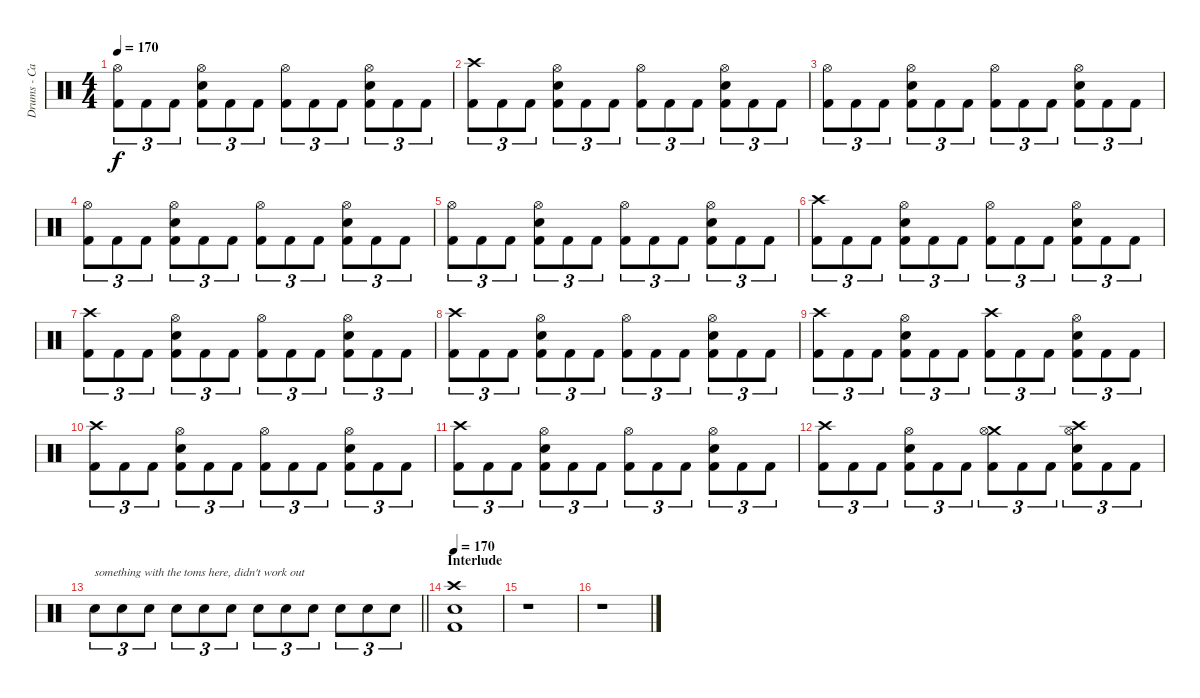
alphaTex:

\track ("Drums - Casey Grillo" "Drums - Ca") {instrument percussion}
\staff {score}
\articulation defaults
\ts (4 4)
\tempo 170
\clef neutral
\ks c
("Hi-Hat (open)" "Kick (hit) 2").8{tu (3 2) dy f} "Kick (hit) 2".8{tu (3 2)} "Kick (hit) 2".8{tu (3 2)} ("Hi-Hat (open)" "Snare (hit) 2" "Kick (hit) 2").8{tu (3 2)} "Kick (hit) 2".8{tu (3 2)} "Kick (hit) 2".8{tu (3 2)} ("Hi-Hat (open)" "Kick (hit) 2").8{tu (3 2)} "Kick (hit) 2".8{tu (3 2)} "Kick (hit) 2".8{tu (3 2)} ("Hi-Hat (open)" "Snare (hit) 2" "Kick (hit) 2").8{tu (3 2)} "Kick (hit) 2".8{tu (3 2)} "Kick (hit) 2".8{tu (3 2)} |
("Crash high (hit)" "Kick (hit) 2").8{tu (3 2)} "Kick (hit) 2".8{tu (3 2)} "Kick (hit) 2".8{tu (3 2)} ("Hi-Hat (open)" "Snare (hit) 2" "Kick (hit) 2").8{tu (3 2)} "Kick (hit) 2".8{tu (3 2)} "Kick (hit) 2".8{tu (3 2)} ("Hi-Hat (open)" "Kick (hit) 2").8{tu (3 2)} "Kick (hit) 2".8{tu (3 2)} "Kick (hit) 2".8{tu (3 2)} ("Hi-Hat (open)" "Snare (hit) 2" "Kick (hit) 2").8{tu (3 2)} "Kick (hit) 2".8{tu (3 2)} "Kick (hit) 2".8{tu (3 2)} |
("Hi-Hat (open)" "Kick (hit) 2").8{tu (3 2)} "Kick (hit) 2".8{tu (3 2)} "Kick (hit) 2".8{tu (3 2)} ("Hi-Hat (open)" "Snare (hit) 2" "Kick (hit) 2").8{tu (3 2)} "Kick (hit) 2".8{tu (3 2)} "Kick (hit) 2".8{tu (3 2)} ("Hi-Hat (open)" "Kick (hit) 2").8{tu (3 2)} "Kick (hit) 2".8{tu (3 2)} "Kick (hit) 2".8{tu (3 2)} ("Hi-Hat (open)" "Snare (hit) 2" "Kick (hit) 2").8{tu (3 2)} "Kick (hit) 2".8{tu (3 2)} "Kick (hit) 2".8{tu (3 2)} |
("Hi-Hat (open)" "Kick (hit) 2").8{tu (3 2)} "Kick (hit) 2".8{tu (3 2)} "Kick (hit) 2".8{tu (3 2)} ("Hi-Hat (open)" "Snare (hit) 2" "Kick (hit) 2").8{tu (3 2)} "Kick (hit) 2".8{tu (3 2)} "Kick (hit) 2".8{tu (3 2)} ("Hi-Hat (open)" "Kick (hit) 2").8{tu (3 2)} "Kick (hit) 2".8{tu (3 2)} "Kick (hit) 2".8{tu (3 2)} ("Hi-Hat (open)" "Snare (hit) 2" "Kick (hit) 2").8{tu (3 2)} "Kick (hit) 2".8{tu (3 2)} "Kick (hit) 2".8{tu (3 2)} |
("Hi-Hat (open)" "Kick (hit) 2").8{tu (3 2)} "Kick (hit) 2".8{tu (3 2)} "Kick (hit) 2".8{tu (3 2)} ("Hi-Hat (open)" "Snare (hit) 2" "Kick (hit) 2").8{tu (3 2)} "Kick (hit) 2".8{tu (3 2)} "Kick (hit) 2".8{tu (3 2)} ("Hi-Hat (open)" "Kick (hit) 2").8{tu (3 2)} "Kick (hit) 2".8{tu (3 2)} "Kick (hit) 2".8{tu (3 2)} ("Hi-Hat (open)" "Snare (hit) 2" "Kick (hit) 2").8{tu (3 2)} "Kick (hit) 2".8{tu (3 2)} "Kick (hit) 2".8{tu (3 2)} |
("Crash high (hit)" "Kick (hit) 2").8{tu (3 2)} "Kick (hit) 2".8{tu (3 2)} "Kick (hit) 2".8{tu (3 2)} ("Hi-Hat (open)" "Snare (hit) 2" "Kick (hit) 2").8{tu (3 2)} "Kick (hit) 2".8{tu (3 2)} "Kick (hit) 2".8{tu (3 2)} ("Hi-Hat (open)" "Kick (hit) 2").8{tu (3 2)} "Kick (hit) 2".8{tu (3 2)} "Kick (hit) 2".8{tu (3 2)} ("Hi-Hat (open)" "Snare (hit) 2" "Kick (hit) 2").8{tu (3 2)} "Kick (hit) 2".8{tu (3 2)} "Kick (hit) 2".8{tu (3 2)} |
("Crash high (hit)" "Kick (hit) 2").8{tu (3 2)} "Kick (hit) 2".8{tu (3 2)} "Kick (hit) 2".8{tu (3 2)} ("Hi-Hat (open)" "Snare (hit) 2" "Kick (hit) 2").8{tu (3 2)} "Kick (hit) 2".8{tu (3 2)} "Kick (hit) 2".8{tu (3 2)} ("Hi-Hat (open)" "Kick (hit) 2").8{tu (3 2)} "Kick (hit) 2".8{tu (3 2)} "Kick (hit) 2".8{tu (3 2)} ("Hi-Hat (open)" "Snare (hit) 2" "Kick (hit) 2").8{tu (3 2)} "Kick (hit) 2".8{tu (3 2)} "Kick (hit) 2".8{tu (3 2)} |
("Crash high (hit)" "Kick (hit) 2").8{tu (3 2)} "Kick (hit) 2".8{tu (3 2)} "Kick (hit) 2".8{tu (3 2)} ("Hi-Hat (open)" "Snare (hit) 2" "Kick (hit) 2").8{tu (3 2)} "Kick (hit) 2".8{tu (3 2)} "Kick (hit) 2".8{tu (3 2)} ("Hi-Hat (open)" "Kick (hit) 2").8{tu (3 2)} "Kick (hit) 2".8{tu (3 2)} "Kick (hit) 2".8{tu (3 2)} ("Hi-Hat (open)" "Snare (hit) 2" "Kick (hit) 2").8{tu (3 2)} "Kick (hit) 2".8{tu (3 2)} "Kick (hit) 2".8{tu (3 2)} |
("Crash high (hit)" "Kick (hit) 2").8{tu (3 2)} "Kick (hit) 2".8{tu (3 2)} "Kick (hit) 2".8{tu (3 2)} ("Hi-Hat (open)" "Snare (hit) 2" "Kick (hit) 2").8{tu (3 2)} "Kick (hit) 2".8{tu (3 2)} "Kick (hit) 2".8{tu (3 2)} ("Crash high (hit)" "Kick (hit) 2").8{tu (3 2)} "Kick (hit) 2".8{tu (3 2)} "Kick (hit) 2".8{tu (3 2)} ("Hi-Hat (open)" "Snare (hit) 2" "Kick (hit) 2").8{tu (3 2)} "Kick (hit) 2".8{tu (3 2)} "Kick (hit) 2".8{tu (3 2)} |
("Crash high (hit)" "Kick (hit) 2").8{tu (3 2)} "Kick (hit) 2".8{tu (3 2)} "Kick (hit) 2".8{tu (3 2)} ("Hi-Hat (open)" "Snare (hit) 2" "Kick (hit) 2").8{tu (3 2)} "Kick (hit) 2".8{tu (3 2)} "Kick (hit) 2".8{tu (3 2)} ("Hi-Hat (open)" "Kick (hit) 2").8{tu (3 2)} "Kick (hit) 2".8{tu (3 2)} "Kick (hit) 2".8{tu (3 2)} ("Hi-Hat (open)" "Snare (hit) 2" "Kick (hit) 2").8{tu (3 2)} "Kick (hit) 2".8{tu (3 2)} "Kick (hit) 2".8{tu (3 2)} |
("Crash high (hit)" "Kick (hit) 2").8{tu (3 2)} "Kick (hit) 2".8{tu (3 2)} "Kick (hit) 2".8{tu (3 2)} ("Hi-Hat (open)" "Snare (hit) 2" "Kick (hit) 2").8{tu (3 2)} "Kick (hit) 2".8{tu (3 2)} "Kick (hit) 2".8{tu (3 2)} ("Hi-Hat (open)" "Kick (hit) 2").8{tu (3 2)} "Kick (hit) 2".8{tu (3 2)} "Kick (hit) 2".8{tu (3 2)} ("Hi-Hat (open)" "Snare (hit) 2" "Kick (hit) 2").8{tu (3 2)} "Kick (hit) 2".8{tu (3 2)} "Kick (hit) 2".8{tu (3 2)} |
("Crash high (hit)" "Kick (hit) 2").8{tu (3 2)} "Kick (hit) 2".8{tu (3 2)} "Kick (hit) 2".8{tu (3 2)} ("Hi-Hat (open)" "Snare (hit) 2" "Kick (hit) 2").8{tu (3 2)} "Kick (hit) 2".8{tu (3 2)} "Kick (hit) 2".8{tu (3 2)} ("Crash medium (hit)" "Hi-Hat (open)" "Kick (hit) 2").8{tu (3 2)} "Kick (hit) 2".8{tu (3 2)} "Kick (hit) 2".8{tu (3 2)} ("Crash high (hit)" "Hi-Hat (open)" "Snare (hit) 2" "Kick (hit) 2").8{tu (3 2)} "Kick (hit) 2".8{tu (3 2)} "Kick (hit) 2".8{tu (3 2)} |
\barLineRight lightlight "Snare (hit) 2".8{tu (3 2) txt "something with the toms here, didn't work out"} "Snare (hit) 2".8{tu (3 2)} "Snare (hit) 2".8{tu (3 2)} "Snare (hit) 2".8{tu (3 2)} "Snare (hit) 2".8{tu (3 2)} "Snare (hit) 2".8{tu (3 2)} "Snare (hit) 2".8{tu (3 2)} "Snare (hit) 2".8{tu (3 2)} "Snare (hit) 2".8{tu (3 2)} "Snare (hit) 2".8{tu (3 2)} "Snare (hit) 2".8{tu (3 2)} "Snare (hit) 2".8{tu (3 2)}
|
\section ("" "Interlude")
\tempo 170
("Crash high (hit)" "Snare (hit) 2" "Kick (hit) 2").1 |
r.1 |
r.1
